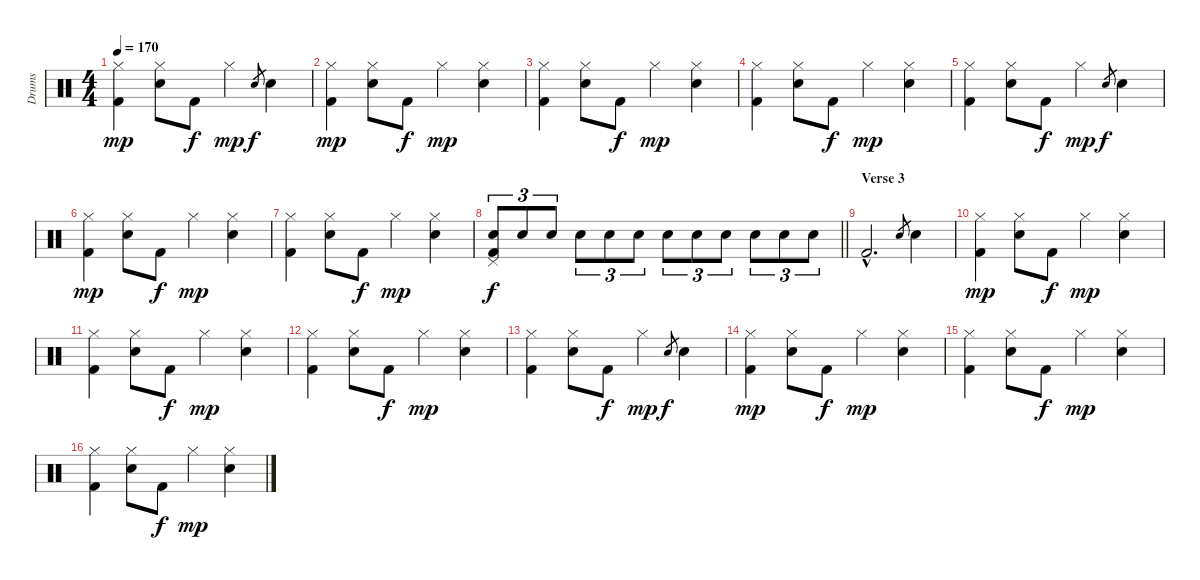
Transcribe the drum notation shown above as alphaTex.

\track ("Drums" "Drums") {instrument percussion}
\staff {score}
\articulation defaults
\ts (4 4)
\tempo 170
\clef neutral
\ks c
("Hi-Hat (closed)" "Kick (hit) 2").4{dy mp} ("Hi-Hat (closed)" "Electric Snare (hit)").8 "Kick (hit) 2".8{dy f} "Hi-Hat (closed)".4{dy mp} "Electric Snare (hit)".8{gr dy f} "Electric Snare (hit)".4 |
("Hi-Hat (closed)" "Kick (hit) 2").4{dy mp} ("Hi-Hat (closed)" "Electric Snare (hit)").8 "Kick (hit) 2".8{dy f} "Hi-Hat (closed)".4{dy mp} ("Hi-Hat (closed)" "Electric Snare (hit)").4 |
("Hi-Hat (closed)" "Kick (hit) 2").4 ("Hi-Hat (closed)" "Electric Snare (hit)").8 "Kick (hit) 2".8{dy f} "Hi-Hat (closed)".4{dy mp} ("Hi-Hat (closed)" "Electric Snare (hit)").4 |
("Hi-Hat (closed)" "Kick (hit) 2").4 ("Hi-Hat (closed)" "Electric Snare (hit)").8 "Kick (hit) 2".8{dy f} "Hi-Hat (closed)".4{dy mp} ("Hi-Hat (closed)" "Electric Snare (hit)").4 |
("Hi-Hat (closed)" "Kick (hit) 2").4 ("Hi-Hat (closed)" "Electric Snare (hit)").8 "Kick (hit) 2".8{dy f} "Hi-Hat (closed)".4{dy mp} "Electric Snare (hit)".8{gr dy f} "Electric Snare (hit)".4 |
("Hi-Hat (closed)" "Kick (hit) 2").4{dy mp} ("Hi-Hat (closed)" "Electric Snare (hit)").8 "Kick (hit) 2".8{dy f} "Hi-Hat (closed)".4{dy mp} ("Hi-Hat (closed)" "Electric Snare (hit)").4 |
("Hi-Hat (closed)" "Kick (hit) 2").4 ("Hi-Hat (closed)" "Electric Snare (hit)").8 "Kick (hit) 2".8{dy f} "Hi-Hat (closed)".4{dy mp} ("Hi-Hat (closed)" "Electric Snare (hit)").4 |
\barLineRight lightlight
("Pedal Hi-Hat (hit)" "Electric Snare (hit)" "Kick (hit) 2").8{tu (3 2) dy f} "Electric Snare (hit)".8{tu (3 2)} "Electric Snare (hit)".8{tu (3 2)} "Electric Snare (hit)".8{tu (3 2)} "Electric Snare (hit)".8{tu (3 2)} "Electric Snare (hit)".8{tu (3 2)} "Electric Snare (hit)".8{tu (3 2)} "Electric Snare (hit)".8{tu (3 2)} "Electric Snare (hit)".8{tu (3 2)} "Electric Snare (hit)".8{tu (3 2)} "Electric Snare (hit)".8{tu (3 2)} "Electric Snare (hit)".8{tu (3 2)} |
\section ("" "Verse 3")
"Kick (hit) 2"{hac}.2{d} "Snare (hit) 2".8{gr} "Snare (hit) 2".4 |
("Hi-Hat (closed)" "Kick (hit) 2").4{dy mp} ("Hi-Hat (closed)" "Electric Snare (hit)").8 "Kick (hit) 2".8{dy f} "Hi-Hat (closed)".4{dy mp} ("Hi-Hat (closed)" "Electric Snare (hit)").4 |
("Hi-Hat (closed)" "Kick (hit) 2").4 ("Hi-Hat (closed)" "Electric Snare (hit)").8 "Kick (hit) 2".8{dy f} "Hi-Hat (closed)".4{dy mp} ("Hi-Hat (closed)" "Electric Snare (hit)").4 |
("Hi-Hat (closed)" "Kick (hit) 2").4 ("Hi-Hat (closed)" "Electric Snare (hit)").8 "Kick (hit) 2".8{dy f} "Hi-Hat (closed)".4{dy mp} ("Hi-Hat (closed)" "Electric Snare (hit)").4 |
("Hi-Hat (closed)" "Kick (hit) 2").4 ("Hi-Hat (closed)" "Electric Snare (hit)").8 "Kick (hit) 2".8{dy f} "Hi-Hat (closed)".4{dy mp} "Electric Snare (hit)".8{gr dy f} "Electric Snare (hit)".4 |
("Hi-Hat (closed)" "Kick (hit) 2").4{dy mp} ("Hi-Hat (closed)" "Electric Snare (hit)").8 "Kick (hit) 2".8{dy f} "Hi-Hat (closed)".4{dy mp} ("Hi-Hat (closed)" "Electric Snare (hit)").4 |
("Hi-Hat (closed)" "Kick (hit) 2").4 ("Hi-Hat (closed)" "Electric Snare (hit)").8 "Kick (hit) 2".8{dy f} "Hi-Hat (closed)".4{dy mp} ("Hi-Hat (closed)" "Electric Snare (hit)").4 |
("Hi-Hat (closed)" "Kick (hit) 2").4 ("Hi-Hat (closed)" "Electric Snare (hit)").8 "Kick (hit) 2".8{dy f} "Hi-Hat (closed)".4{dy mp} ("Hi-Hat (closed)" "Electric Snare (hit)").4
